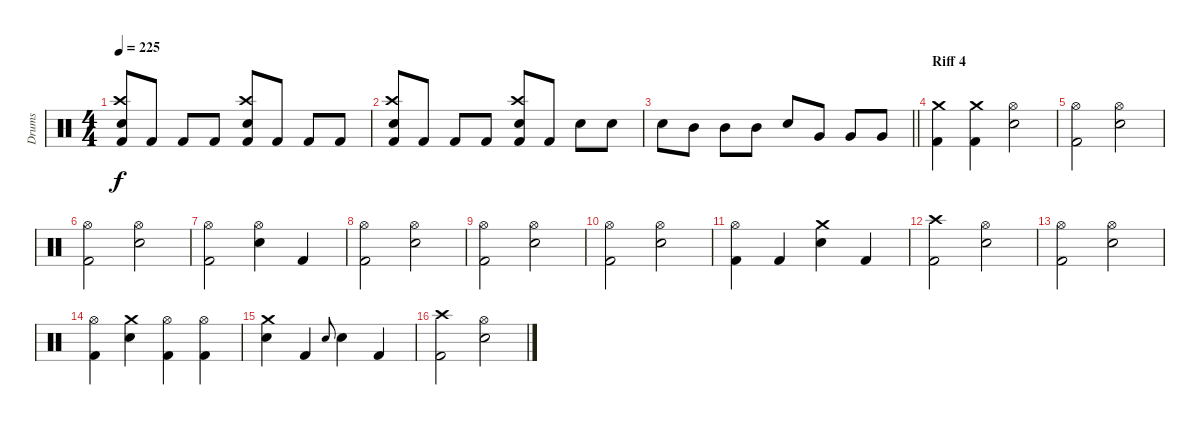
\track ("Drums" "Drums") {instrument percussion}
\staff {score}
\articulation defaults
\ts (4 4)
\tempo 225
\clef neutral
\ks c
("Kick (hit) 2" "Crash high (hit)" "Electric Snare (hit)").8{dy f} "Kick (hit) 2".8 "Kick (hit) 2".8 "Kick (hit) 2".8 ("Kick (hit) 2" "Crash high (hit)" "Electric Snare (hit)").8 "Kick (hit) 2".8 "Kick (hit) 2".8 "Kick (hit) 2".8 |
("Kick (hit) 2" "Crash high (hit)" "Electric Snare (hit)").8 "Kick (hit) 2".8 "Kick (hit) 2".8 "Kick (hit) 2".8 ("Kick (hit) 2" "Crash high (hit)" "Electric Snare (hit)").8 "Kick (hit) 2".8 "Electric Snare (hit)".8 "Electric Snare (hit)".8 |
\barLineRight lightlight "Electric Snare (hit)".8 "Mid Tom (hit)".8 "Mid Tom (hit)".8 "Mid Tom (hit)".8 "Electric Snare (hit)".8 "Very Low Tom (hit)".8 "Very Low Tom (hit)".8 "Very Low Tom (hit)".8
|
\section ("" "Riff 4")
("Crash medium (hit)" "Kick (hit) 2").4 ("Crash medium (hit)" "Kick (hit) 2").4 ("Hi-Hat (open)" "Electric Snare (hit)").2 |
("Hi-Hat (open)" "Kick (hit) 2").2 ("Hi-Hat (open)" "Electric Snare (hit)").2 |
("Hi-Hat (open)" "Kick (hit) 2").2 ("Hi-Hat (open)" "Electric Snare (hit)").2 |
("Hi-Hat (open)" "Kick (hit) 2").2 ("Hi-Hat (open)" "Electric Snare (hit)").4 "Kick (hit) 2".4 |
("Hi-Hat (open)" "Kick (hit) 2").2 ("Hi-Hat (open)" "Electric Snare (hit)").2 |
("Hi-Hat (open)" "Kick (hit) 2").2 ("Hi-Hat (open)" "Electric Snare (hit)").2 |
("Hi-Hat (open)" "Kick (hit) 2").2 ("Hi-Hat (open)" "Electric Snare (hit)").2 |
("Hi-Hat (open)" "Kick (hit) 2").4 "Kick (hit) 2".4 ("Crash medium (hit)" "Electric Snare (hit)").4 "Kick (hit) 2".4 |
("Crash high (hit)" "Kick (hit) 2").2 ("Hi-Hat (open)" "Electric Snare (hit)").2 |
("Hi-Hat (open)" "Kick (hit) 2").2 ("Hi-Hat (open)" "Electric Snare (hit)").2 |
("Kick (hit) 2" "Hi-Hat (open)").4 ("Electric Snare (hit)" "Crash medium (hit)").4 ("Kick (hit) 2" "Hi-Hat (open)").4 ("Kick (hit) 2" "Hi-Hat (open)").4 |
("Electric Snare (hit)" "Crash medium (hit)").4 "Kick (hit) 2".4 "Electric Snare (hit)".8{gr onbeat} "Electric Snare (hit)".4 "Kick (hit) 2".4 |
("Crash high (hit)" "Kick (hit) 2").2 ("Hi-Hat (open)" "Electric Snare (hit)").2
